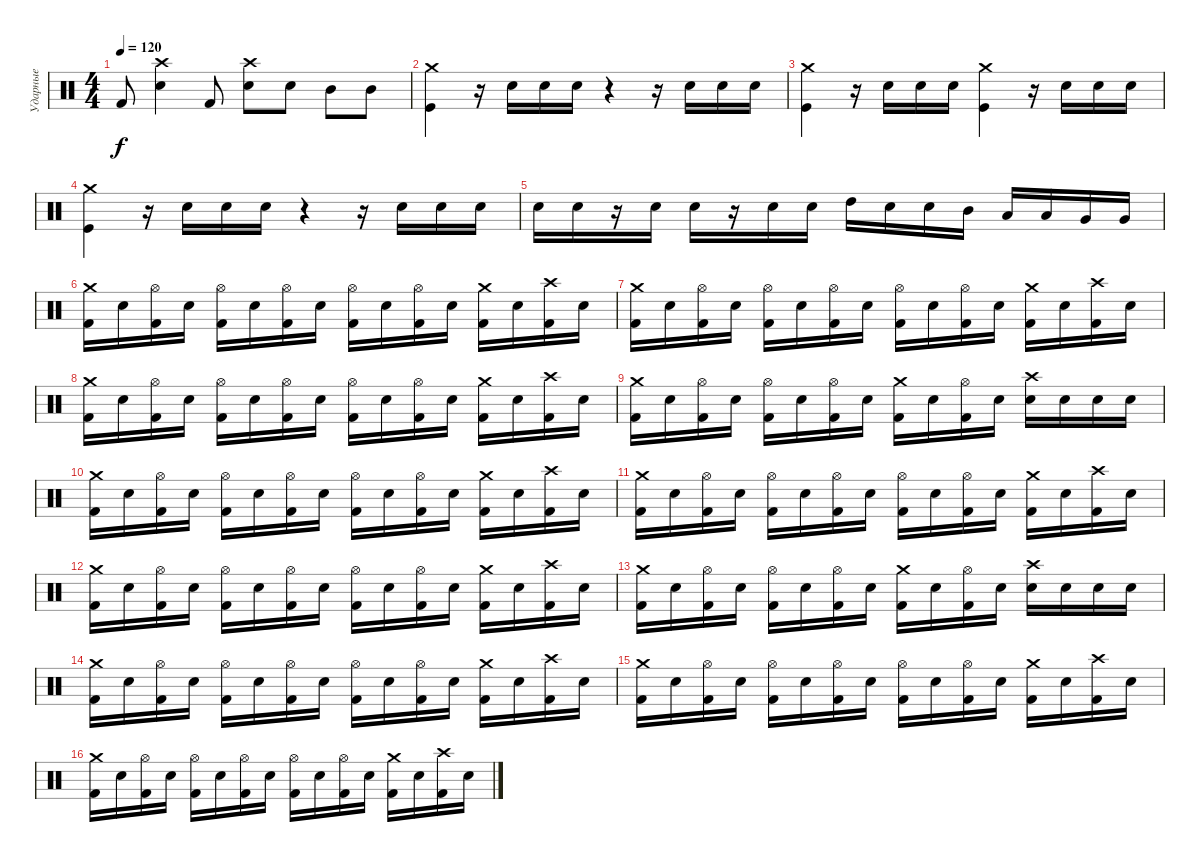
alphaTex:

\track ("Ударные" "Ударные") {instrument percussion}
\staff {score}
\articulation defaults
\ts (4 4)
\tempo 120
\clef neutral
\ks c "Kick (hit) 2".8{dy f}
("Crash high (hit)" "Snare (hit) 2").4 "Kick (hit) 2".8 ("Crash high (hit)" "Snare (hit) 2").8 "Snare (hit) 2".8 "Mid Tom (hit)".8 "Mid Tom (hit)".8 |
("Crash medium (hit)" "Kick (hit)").4 r.16 "Snare (hit) 2".16 "Snare (hit) 2".16 "Snare (hit) 2".16 r.4 r.16 "Snare (hit) 2".16 "Snare (hit) 2".16 "Snare (hit) 2".16 |
("Crash medium (hit)" "Kick (hit)").4 r.16 "Snare (hit) 2".16 "Snare (hit) 2".16 "Snare (hit) 2".16 ("Crash medium (hit)" "Kick (hit)").4 r.16 "Snare (hit) 2".16 "Snare (hit) 2".16 "Snare (hit) 2".16 |
("Crash medium (hit)" "Kick (hit)").4 r.16 "Snare (hit) 2".16 "Snare (hit) 2".16 "Snare (hit) 2".16 r.4 r.16 "Snare (hit) 2".16 "Snare (hit) 2".16 "Snare (hit) 2".16 |
"Snare (hit) 2".16 "Snare (hit) 2".16 r.16 "Snare (hit) 2".16 "Snare (hit) 2".16 r.16 "Snare (hit) 2".16 "Snare (hit) 2".16 "High Tom (hit)".16 "Snare (hit) 2".16 "Snare (hit) 2".16 "Mid Tom (hit)".16 "Low Tom (hit)".16 "Low Tom (hit)".16 "Very Low Tom (hit)".16 "Very Low Tom (hit)".16 |
("Crash medium (hit)" "Kick (hit) 2").16 "Snare (hit) 2".16 ("Hi-Hat (open)" "Kick (hit) 2").16 "Snare (hit) 2".16 ("Hi-Hat (open)" "Kick (hit) 2").16 "Snare (hit) 2".16 ("Hi-Hat (open)" "Kick (hit) 2").16 "Snare (hit) 2".16 ("Hi-Hat (open)" "Kick (hit) 2").16 "Snare (hit) 2".16 ("Hi-Hat (open)" "Kick (hit) 2").16 "Snare (hit) 2".16 ("Crash medium (hit)" "Kick (hit) 2").16 "Snare (hit) 2".16 ("Crash high (hit)" "Kick (hit) 2").16 "Snare (hit) 2".16 |
("Crash medium (hit)" "Kick (hit) 2").16 "Snare (hit) 2".16 ("Hi-Hat (open)" "Kick (hit) 2").16 "Snare (hit) 2".16 ("Hi-Hat (open)" "Kick (hit) 2").16 "Snare (hit) 2".16 ("Hi-Hat (open)" "Kick (hit) 2").16 "Snare (hit) 2".16 ("Hi-Hat (open)" "Kick (hit) 2").16 "Snare (hit) 2".16 ("Hi-Hat (open)" "Kick (hit) 2").16 "Snare (hit) 2".16 ("Crash medium (hit)" "Kick (hit) 2").16 "Snare (hit) 2".16 ("Crash high (hit)" "Kick (hit) 2").16 "Snare (hit) 2".16 |
("Crash medium (hit)" "Kick (hit) 2").16 "Snare (hit) 2".16 ("Hi-Hat (open)" "Kick (hit) 2").16 "Snare (hit) 2".16 ("Hi-Hat (open)" "Kick (hit) 2").16 "Snare (hit) 2".16 ("Hi-Hat (open)" "Kick (hit) 2").16 "Snare (hit) 2".16 ("Hi-Hat (open)" "Kick (hit) 2").16 "Snare (hit) 2".16 ("Hi-Hat (open)" "Kick (hit) 2").16 "Snare (hit) 2".16 ("Crash medium (hit)" "Kick (hit) 2").16 "Snare (hit) 2".16 ("Crash high (hit)" "Kick (hit) 2").16 "Snare (hit) 2".16 |
("Crash medium (hit)" "Kick (hit) 2").16 "Snare (hit) 2".16 ("Hi-Hat (open)" "Kick (hit) 2").16 "Snare (hit) 2".16 ("Hi-Hat (open)" "Kick (hit) 2").16 "Snare (hit) 2".16 ("Hi-Hat (open)" "Kick (hit) 2").16 "Snare (hit) 2".16 ("Crash medium (hit)" "Kick (hit) 2").16 "Snare (hit) 2".16 ("Hi-Hat (open)" "Kick (hit) 2").16 "Snare (hit) 2".16 ("Crash high (hit)" "Snare (hit) 2").16 "Snare (hit) 2".16 "Snare (hit) 2".16 "Snare (hit) 2".16 |
("Crash medium (hit)" "Kick (hit) 2").16 "Snare (hit) 2".16 ("Hi-Hat (open)" "Kick (hit) 2").16 "Snare (hit) 2".16 ("Hi-Hat (open)" "Kick (hit) 2").16 "Snare (hit) 2".16 ("Hi-Hat (open)" "Kick (hit) 2").16 "Snare (hit) 2".16 ("Hi-Hat (open)" "Kick (hit) 2").16 "Snare (hit) 2".16 ("Hi-Hat (open)" "Kick (hit) 2").16 "Snare (hit) 2".16 ("Crash medium (hit)" "Kick (hit) 2").16 "Snare (hit) 2".16 ("Crash high (hit)" "Kick (hit) 2").16 "Snare (hit) 2".16 |
("Crash medium (hit)" "Kick (hit) 2").16 "Snare (hit) 2".16 ("Hi-Hat (open)" "Kick (hit) 2").16 "Snare (hit) 2".16 ("Hi-Hat (open)" "Kick (hit) 2").16 "Snare (hit) 2".16 ("Hi-Hat (open)" "Kick (hit) 2").16 "Snare (hit) 2".16 ("Hi-Hat (open)" "Kick (hit) 2").16 "Snare (hit) 2".16 ("Hi-Hat (open)" "Kick (hit) 2").16 "Snare (hit) 2".16 ("Crash medium (hit)" "Kick (hit) 2").16 "Snare (hit) 2".16 ("Crash high (hit)" "Kick (hit) 2").16 "Snare (hit) 2".16 |
("Crash medium (hit)" "Kick (hit) 2").16 "Snare (hit) 2".16 ("Hi-Hat (open)" "Kick (hit) 2").16 "Snare (hit) 2".16 ("Hi-Hat (open)" "Kick (hit) 2").16 "Snare (hit) 2".16 ("Hi-Hat (open)" "Kick (hit) 2").16 "Snare (hit) 2".16 ("Hi-Hat (open)" "Kick (hit) 2").16 "Snare (hit) 2".16 ("Hi-Hat (open)" "Kick (hit) 2").16 "Snare (hit) 2".16 ("Crash medium (hit)" "Kick (hit) 2").16 "Snare (hit) 2".16 ("Crash high (hit)" "Kick (hit) 2").16 "Snare (hit) 2".16 |
("Crash medium (hit)" "Kick (hit) 2").16 "Snare (hit) 2".16 ("Hi-Hat (open)" "Kick (hit) 2").16 "Snare (hit) 2".16 ("Hi-Hat (open)" "Kick (hit) 2").16 "Snare (hit) 2".16 ("Hi-Hat (open)" "Kick (hit) 2").16 "Snare (hit) 2".16 ("Crash medium (hit)" "Kick (hit) 2").16 "Snare (hit) 2".16 ("Hi-Hat (open)" "Kick (hit) 2").16 "Snare (hit) 2".16 ("Crash high (hit)" "Snare (hit) 2").16 "Snare (hit) 2".16 "Snare (hit) 2".16 "Snare (hit) 2".16 |
("Crash medium (hit)" "Kick (hit) 2").16 "Snare (hit) 2".16 ("Hi-Hat (open)" "Kick (hit) 2").16 "Snare (hit) 2".16 ("Hi-Hat (open)" "Kick (hit) 2").16 "Snare (hit) 2".16 ("Hi-Hat (open)" "Kick (hit) 2").16 "Snare (hit) 2".16 ("Hi-Hat (open)" "Kick (hit) 2").16 "Snare (hit) 2".16 ("Hi-Hat (open)" "Kick (hit) 2").16 "Snare (hit) 2".16 ("Crash medium (hit)" "Kick (hit) 2").16 "Snare (hit) 2".16 ("Crash high (hit)" "Kick (hit) 2").16 "Snare (hit) 2".16 |
("Crash medium (hit)" "Kick (hit) 2").16 "Snare (hit) 2".16 ("Hi-Hat (open)" "Kick (hit) 2").16 "Snare (hit) 2".16 ("Hi-Hat (open)" "Kick (hit) 2").16 "Snare (hit) 2".16 ("Hi-Hat (open)" "Kick (hit) 2").16 "Snare (hit) 2".16 ("Hi-Hat (open)" "Kick (hit) 2").16 "Snare (hit) 2".16 ("Hi-Hat (open)" "Kick (hit) 2").16 "Snare (hit) 2".16 ("Crash medium (hit)" "Kick (hit) 2").16 "Snare (hit) 2".16 ("Crash high (hit)" "Kick (hit) 2").16 "Snare (hit) 2".16 |
("Crash medium (hit)" "Kick (hit) 2").16 "Snare (hit) 2".16 ("Hi-Hat (open)" "Kick (hit) 2").16 "Snare (hit) 2".16 ("Hi-Hat (open)" "Kick (hit) 2").16 "Snare (hit) 2".16 ("Hi-Hat (open)" "Kick (hit) 2").16 "Snare (hit) 2".16 ("Hi-Hat (open)" "Kick (hit) 2").16 "Snare (hit) 2".16 ("Hi-Hat (open)" "Kick (hit) 2").16 "Snare (hit) 2".16 ("Crash medium (hit)" "Kick (hit) 2").16 "Snare (hit) 2".16 ("Crash high (hit)" "Kick (hit) 2").16 "Snare (hit) 2".16
